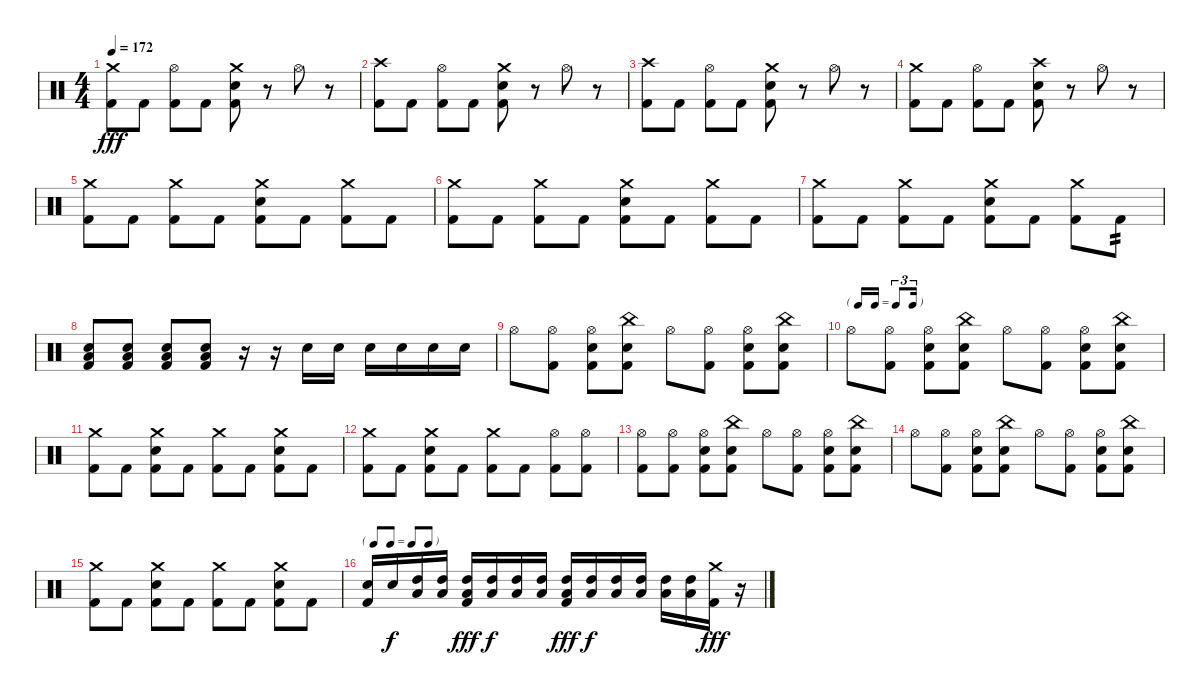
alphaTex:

\track (" " " ") {instrument percussion}
\staff {score}
\articulation defaults
\ts (4 4)
\tempo 172
\clef neutral
\ks c
("Crash medium (hit)" "Kick (hit) 2").8{dy fff} "Kick (hit) 2".8 ("Hi-Hat (open)" "Kick (hit) 2").8 "Kick (hit) 2".8 ("Crash medium (hit)" "Snare (hit) 2" "Kick (hit) 2").8 r.8 "Hi-Hat (open)".8 r.8 |
("Crash high (hit)" "Kick (hit) 2").8 "Kick (hit) 2".8 ("Hi-Hat (open)" "Kick (hit) 2").8 "Kick (hit) 2".8 ("Crash medium (hit)" "Snare (hit) 2" "Kick (hit) 2").8 r.8 "Hi-Hat (open)".8 r.8 |
("Crash high (hit)" "Kick (hit) 2").8 "Kick (hit) 2".8 ("Hi-Hat (open)" "Kick (hit) 2").8 "Kick (hit) 2".8 ("Crash medium (hit)" "Snare (hit) 2" "Kick (hit) 2").8 r.8 "Hi-Hat (open)".8 r.8 |
("Crash medium (hit)" "Kick (hit) 2").8 "Kick (hit) 2".8 ("Hi-Hat (open)" "Kick (hit) 2").8 "Kick (hit) 2".8 ("Crash high (hit)" "Snare (hit) 2" "Kick (hit) 2").8 r.8 "Hi-Hat (open)".8 r.8 |
("Crash medium (hit)" "Kick (hit) 2").8 "Kick (hit) 2".8 ("Crash medium (hit)" "Kick (hit) 2").8 "Kick (hit) 2".8 ("Crash medium (hit)" "Snare (hit) 2" "Kick (hit) 2").8 "Kick (hit) 2".8 ("Crash medium (hit)" "Kick (hit) 2").8 "Kick (hit) 2".8 |
("Crash medium (hit)" "Kick (hit) 2").8 "Kick (hit) 2".8 ("Crash medium (hit)" "Kick (hit) 2").8 "Kick (hit) 2".8 ("Crash medium (hit)" "Snare (hit) 2" "Kick (hit) 2").8 "Kick (hit) 2".8 ("Crash medium (hit)" "Kick (hit) 2").8 "Kick (hit) 2".8 |
("Crash medium (hit)" "Kick (hit) 2").8 "Kick (hit) 2".8 ("Crash medium (hit)" "Kick (hit) 2").8 "Kick (hit) 2".8 ("Crash medium (hit)" "Snare (hit) 2" "Kick (hit) 2").8 "Kick (hit) 2".8 ("Crash medium (hit)" "Kick (hit) 2").8 "Kick (hit) 2".8{tp 2} |
("Snare (hit) 2" "Low Floor Tom (hit)" "Kick (hit) 2").8 ("Snare (hit) 2" "Low Floor Tom (hit)" "Kick (hit) 2").8 ("Snare (hit) 2" "Low Floor Tom (hit)" "Kick (hit) 2").8 ("Snare (hit) 2" "Low Floor Tom (hit)" "Kick (hit) 2").8 r.16 r.16 "Snare (hit) 2".16 "Snare (hit) 2".16 "Snare (hit) 2".16 "Snare (hit) 2".16 "Snare (hit) 2".16 "Snare (hit) 2".16 |
"Hi-Hat (open)".8 ("Hi-Hat (open)" "Kick (hit) 2").8 ("Hi-Hat (open)" "Snare (hit) 2" "Kick (hit) 2").8 ("China (hit)" "Snare (hit) 2" "Kick (hit) 2").8 "Hi-Hat (open)".8 ("Hi-Hat (open)" "Kick (hit) 2").8 ("Hi-Hat (open)" "Snare (hit) 2" "Kick (hit) 2").8 ("China (hit)" "Snare (hit) 2" "Kick (hit) 2").8 |
\tf triplet16th "Hi-Hat (open)".8
("Hi-Hat (open)" "Kick (hit) 2").8 ("Hi-Hat (open)" "Snare (hit) 2" "Kick (hit) 2").8 ("China (hit)" "Snare (hit) 2" "Kick (hit) 2").8 "Hi-Hat (open)".8 ("Hi-Hat (open)" "Kick (hit) 2").8 ("Hi-Hat (open)" "Snare (hit) 2" "Kick (hit) 2").8 ("China (hit)" "Snare (hit) 2" "Kick (hit) 2").8 |
("Crash medium (hit)" "Kick (hit) 2").8 "Kick (hit) 2".8 ("Crash medium (hit)" "Snare (hit) 2" "Kick (hit) 2").8 "Kick (hit) 2".8 ("Crash medium (hit)" "Kick (hit) 2").8 "Kick (hit) 2".8 ("Crash medium (hit)" "Snare (hit) 2" "Kick (hit) 2").8 "Kick (hit) 2".8 |
("Crash medium (hit)" "Kick (hit) 2").8 "Kick (hit) 2".8 ("Crash medium (hit)" "Snare (hit) 2" "Kick (hit) 2").8 "Kick (hit) 2".8 ("Crash medium (hit)" "Kick (hit) 2").8 "Kick (hit) 2".8 ("Hi-Hat (open)" "Kick (hit) 2").8 ("Hi-Hat (open)" "Kick (hit) 2").8 |
("Hi-Hat (open)" "Kick (hit) 2").8 ("Hi-Hat (open)" "Kick (hit) 2").8 ("Hi-Hat (open)" "Snare (hit) 2" "Kick (hit) 2").8 ("China (hit)" "Snare (hit) 2" "Kick (hit) 2").8 "Hi-Hat (open)".8 ("Hi-Hat (open)" "Kick (hit) 2").8 ("Hi-Hat (open)" "Snare (hit) 2" "Kick (hit) 2").8 ("China (hit)" "Snare (hit) 2" "Kick (hit) 2").8 |
"Hi-Hat (open)".8 ("Hi-Hat (open)" "Kick (hit) 2").8 ("Hi-Hat (open)" "Snare (hit) 2" "Kick (hit) 2").8 ("China (hit)" "Snare (hit) 2" "Kick (hit) 2").8 "Hi-Hat (open)".8 ("Hi-Hat (open)" "Kick (hit) 2").8 ("Hi-Hat (open)" "Snare (hit) 2" "Kick (hit) 2").8 ("China (hit)" "Snare (hit) 2" "Kick (hit) 2").8 |
("Crash medium (hit)" "Kick (hit) 2").8 "Kick (hit) 2".8 ("Crash medium (hit)" "Snare (hit) 2" "Kick (hit) 2").8 "Kick (hit) 2".8 ("Crash medium (hit)" "Kick (hit) 2").8 "Kick (hit) 2".8 ("Crash medium (hit)" "Snare (hit) 2" "Kick (hit) 2").8 "Kick (hit) 2".8 |
\tf none
("Snare (hit) 2" "Kick (hit) 2").16 "Snare (hit) 2".16{dy f} ("High Tom (hit)" "Low Tom (hit)").16 ("High Tom (hit)" "Low Tom (hit)").16 ("High Tom (hit)" "Low Tom (hit)" "Kick (hit) 2").16{dy fff} ("High Tom (hit)" "Low Tom (hit)").16{dy f} ("High Tom (hit)" "Low Floor Tom (hit)").16 ("High Tom (hit)" "Low Floor Tom (hit)").16 ("High Tom (hit)" "Low Floor Tom (hit)" "Kick (hit) 2").16{dy fff} ("High Tom (hit)" "Low Floor Tom (hit)").16{dy f} ("High Tom (hit)" "Low Floor Tom (hit)").16 ("High Tom (hit)" "Low Floor Tom (hit)").16 ("High Tom (hit)" "Low Floor Tom (hit)").16 ("High Tom (hit)" "Low Floor Tom (hit)").16 ("Crash medium (hit)" "Kick (hit) 2").16{dy fff} r.16
